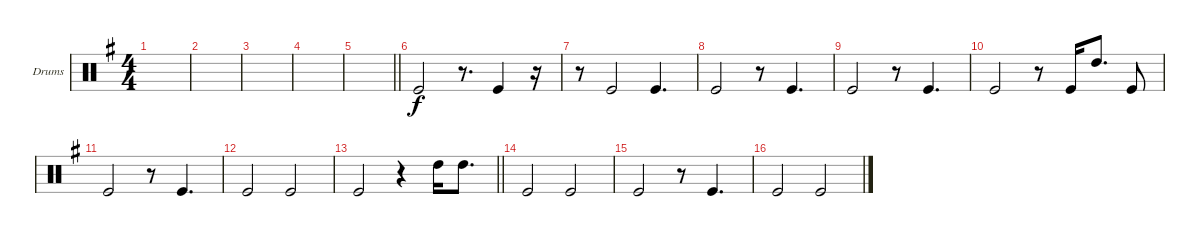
\defaultSystemsLayout 4
\bracketExtendMode groupsimilarinstruments
\firstSystemTrackNameOrientation horizontal
\otherSystemsTrackNameOrientation horizontal
\track ("Drums" "Drums") {instrument percussion}
\staff {score}
\articulation defaults
\ts (4 4)
\scale
0.522857
\tempo (85 hide)
\accidentals auto
\clef neutral
\ottava regular
\simile none
\ks eminor
|
\scale
0.477281 |
\scale
0.480274 |
\scale
0.519919 |
\scale
0.441789
\barLineRight lightlight
|
\scale
0.558405 "Kick (hit)".2 r.8{d} "Kick (hit)".4 r.16 |
\scale
0.4622 r.8 "Kick (hit)".2 "Kick (hit)".4{d} |
\scale
0.538398 "Kick (hit)".2 r.8 "Kick (hit)".4{d} |
\scale
0.511429 "Kick (hit)".2 r.8 "Kick (hit)".4{d} |
\scale
0.488604 "Kick (hit)".2 r.8 "Kick (hit)".16 "High Tom (hit)".8{d} "Kick (hit)".8 |
\scale
0.475783 "Kick (hit)".2 r.8 "Kick (hit)".4{d} |
\scale
0.498904 "Kick (hit)".2 "Kick (hit)".2 |
\scale
0.51
\barLineRight lightlight "Kick (hit)".2
r.4 "High Tom (hit)".16 "High Tom (hit)".8{d} |
\scale
0.490104 "Kick (hit)".2 "Kick (hit)".2 |
\scale
0.51 "Kick (hit)".2 r.8 "Kick (hit)".4{d} |
\scale
0.490104 "Kick (hit)".2 "Kick (hit)".2
